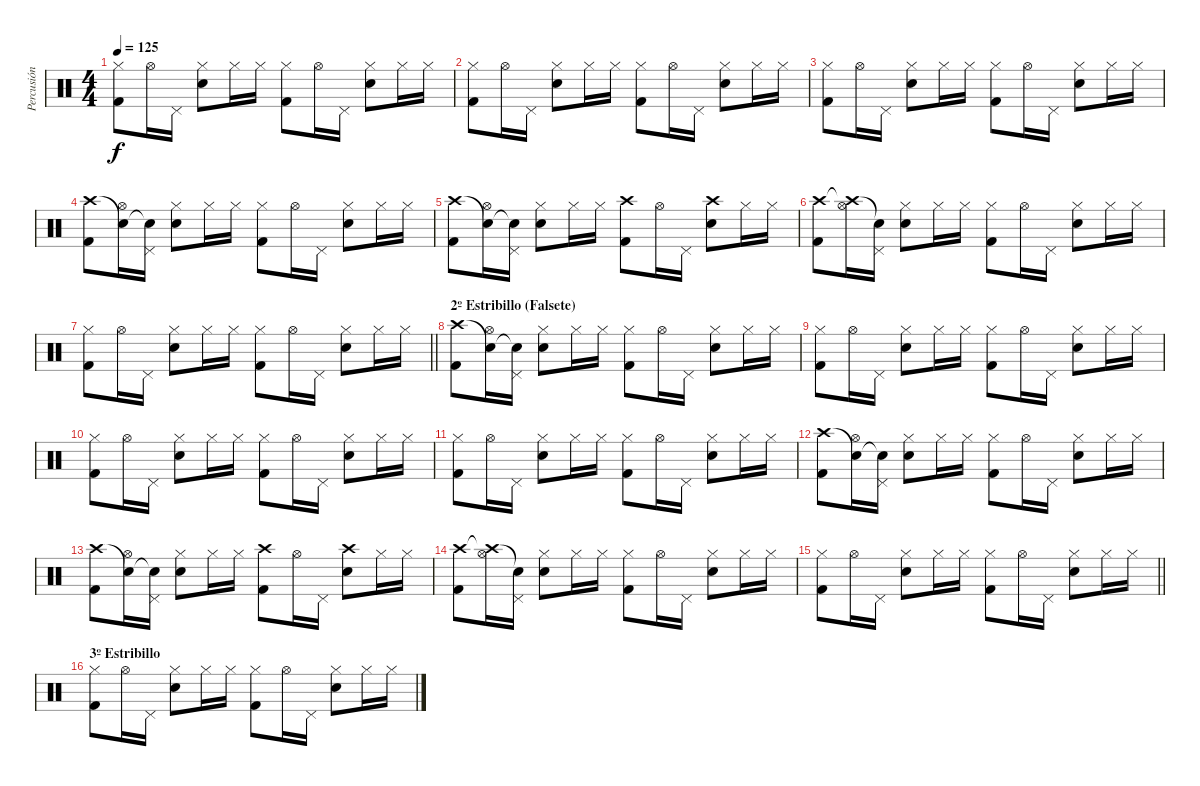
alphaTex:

\track ("Percusión" "Percusión") {instrument percussion}
\staff {score}
\articulation defaults
\ts (4 4)
\tempo 125
\clef neutral
\ks c
("Hi-Hat (closed)" "Kick (hit) 2").8{dy f} "Hi-Hat (open)".16 "Pedal Hi-Hat (hit)".16 ("Hi-Hat (closed)" "Snare (hit) 2").8 "Hi-Hat (closed)".16 "Hi-Hat (closed)".16 ("Hi-Hat (closed)" "Kick (hit) 2").8 "Hi-Hat (open)".16 "Pedal Hi-Hat (hit)".16 ("Hi-Hat (closed)" "Snare (hit) 2").8 "Hi-Hat (closed)".16 "Hi-Hat (closed)".16 |
("Hi-Hat (closed)" "Kick (hit) 2").8 "Hi-Hat (open)".16 "Pedal Hi-Hat (hit)".16 ("Hi-Hat (closed)" "Snare (hit) 2").8 "Hi-Hat (closed)".16 "Hi-Hat (closed)".16 ("Hi-Hat (closed)" "Kick (hit) 2").8 "Hi-Hat (open)".16 "Pedal Hi-Hat (hit)".16 ("Hi-Hat (closed)" "Snare (hit) 2").8 "Hi-Hat (closed)".16 "Hi-Hat (closed)".16 |
("Hi-Hat (closed)" "Kick (hit) 2").8 "Hi-Hat (open)".16 "Pedal Hi-Hat (hit)".16 ("Hi-Hat (closed)" "Snare (hit) 2").8 "Hi-Hat (closed)".16 "Hi-Hat (closed)".16 ("Hi-Hat (closed)" "Kick (hit) 2").8 "Hi-Hat (open)".16 "Pedal Hi-Hat (hit)".16 ("Hi-Hat (closed)" "Snare (hit) 2").8 "Hi-Hat (closed)".16 "Hi-Hat (closed)".16 |
("Crash high (hit)" "Kick (hit) 2").8 ("Snare (hit)"{t} "Hi-Hat (open)").16 ("Snare (hit)"{t} "Pedal Hi-Hat (hit)").16 ("Hi-Hat (closed)" "Snare (hit) 2").8 "Hi-Hat (closed)".16 "Hi-Hat (closed)".16 ("Hi-Hat (closed)" "Kick (hit) 2").8 "Hi-Hat (open)".16 "Pedal Hi-Hat (hit)".16 ("Hi-Hat (closed)" "Snare (hit) 2").8 "Hi-Hat (closed)".16 "Hi-Hat (closed)".16 |
("Crash high (hit)" "Kick (hit) 2").8 ("Snare (hit)"{t} "Hi-Hat (open)").16 ("Snare (hit)"{t} "Pedal Hi-Hat (hit)").16 ("Hi-Hat (closed)" "Snare (hit) 2").8 "Hi-Hat (closed)".16 "Hi-Hat (closed)".16 ("Crash high (hit)" "Kick (hit) 2").8 "Hi-Hat (open)".16 "Pedal Hi-Hat (hit)".16 ("Crash high (hit)" "Snare (hit) 2").8 "Hi-Hat (closed)".16 "Hi-Hat (closed)".16 |
("Crash high (hit)" "Kick (hit) 2").8 ("Crash high (hit)"{t} "Hi-Hat (open)").16 ("Snare (hit)"{t} "Pedal Hi-Hat (hit)").16 ("Hi-Hat (closed)" "Snare (hit) 2").8 "Hi-Hat (closed)".16 "Hi-Hat (closed)".16 ("Hi-Hat (closed)" "Kick (hit) 2").8 "Hi-Hat (open)".16 "Pedal Hi-Hat (hit)".16 ("Hi-Hat (closed)" "Snare (hit) 2").8 "Hi-Hat (closed)".16 "Hi-Hat (closed)".16 |
\barLineRight lightlight
("Hi-Hat (closed)" "Kick (hit) 2").8 "Hi-Hat (open)".16 "Pedal Hi-Hat (hit)".16 ("Hi-Hat (closed)" "Snare (hit) 2").8 "Hi-Hat (closed)".16 "Hi-Hat (closed)".16 ("Hi-Hat (closed)" "Kick (hit) 2").8 "Hi-Hat (open)".16 "Pedal Hi-Hat (hit)".16 ("Hi-Hat (closed)" "Snare (hit) 2").8 "Hi-Hat (closed)".16 "Hi-Hat (closed)".16 |
\section ("" "2º Estribillo (Falsete)")
("Crash high (hit)" "Kick (hit) 2").8 ("Snare (hit)"{t} "Hi-Hat (open)").16 ("Snare (hit)"{t} "Pedal Hi-Hat (hit)").16 ("Hi-Hat (closed)" "Snare (hit) 2").8 "Hi-Hat (closed)".16 "Hi-Hat (closed)".16 ("Hi-Hat (closed)" "Kick (hit) 2").8 "Hi-Hat (open)".16 "Pedal Hi-Hat (hit)".16 ("Hi-Hat (closed)" "Snare (hit) 2").8 "Hi-Hat (closed)".16 "Hi-Hat (closed)".16 |
("Hi-Hat (closed)" "Kick (hit) 2").8 "Hi-Hat (open)".16 "Pedal Hi-Hat (hit)".16 ("Hi-Hat (closed)" "Snare (hit) 2").8 "Hi-Hat (closed)".16 "Hi-Hat (closed)".16 ("Hi-Hat (closed)" "Kick (hit) 2").8 "Hi-Hat (open)".16 "Pedal Hi-Hat (hit)".16 ("Hi-Hat (closed)" "Snare (hit) 2").8 "Hi-Hat (closed)".16 "Hi-Hat (closed)".16 |
("Hi-Hat (closed)" "Kick (hit) 2").8 "Hi-Hat (open)".16 "Pedal Hi-Hat (hit)".16 ("Hi-Hat (closed)" "Snare (hit) 2").8 "Hi-Hat (closed)".16 "Hi-Hat (closed)".16 ("Hi-Hat (closed)" "Kick (hit) 2").8 "Hi-Hat (open)".16 "Pedal Hi-Hat (hit)".16 ("Hi-Hat (closed)" "Snare (hit) 2").8 "Hi-Hat (closed)".16 "Hi-Hat (closed)".16 |
("Hi-Hat (closed)" "Kick (hit) 2").8 "Hi-Hat (open)".16 "Pedal Hi-Hat (hit)".16 ("Hi-Hat (closed)" "Snare (hit) 2").8 "Hi-Hat (closed)".16 "Hi-Hat (closed)".16 ("Hi-Hat (closed)" "Kick (hit) 2").8 "Hi-Hat (open)".16 "Pedal Hi-Hat (hit)".16 ("Hi-Hat (closed)" "Snare (hit) 2").8 "Hi-Hat (closed)".16 "Hi-Hat (closed)".16 |
("Crash high (hit)" "Kick (hit) 2").8 ("Snare (hit)"{t} "Hi-Hat (open)").16 ("Snare (hit)"{t} "Pedal Hi-Hat (hit)").16 ("Hi-Hat (closed)" "Snare (hit) 2").8 "Hi-Hat (closed)".16 "Hi-Hat (closed)".16 ("Hi-Hat (closed)" "Kick (hit) 2").8 "Hi-Hat (open)".16 "Pedal Hi-Hat (hit)".16 ("Hi-Hat (closed)" "Snare (hit) 2").8 "Hi-Hat (closed)".16 "Hi-Hat (closed)".16 |
("Crash high (hit)" "Kick (hit) 2").8 ("Snare (hit)"{t} "Hi-Hat (open)").16 ("Snare (hit)"{t} "Pedal Hi-Hat (hit)").16 ("Hi-Hat (closed)" "Snare (hit) 2").8 "Hi-Hat (closed)".16 "Hi-Hat (closed)".16 ("Crash high (hit)" "Kick (hit) 2").8 "Hi-Hat (open)".16 "Pedal Hi-Hat (hit)".16 ("Crash high (hit)" "Snare (hit) 2").8 "Hi-Hat (closed)".16 "Hi-Hat (closed)".16 |
("Crash high (hit)" "Kick (hit) 2").8 ("Crash high (hit)"{t} "Hi-Hat (open)").16 ("Snare (hit)"{t} "Pedal Hi-Hat (hit)").16 ("Hi-Hat (closed)" "Snare (hit) 2").8 "Hi-Hat (closed)".16 "Hi-Hat (closed)".16 ("Hi-Hat (closed)" "Kick (hit) 2").8 "Hi-Hat (open)".16 "Pedal Hi-Hat (hit)".16 ("Hi-Hat (closed)" "Snare (hit) 2").8 "Hi-Hat (closed)".16 "Hi-Hat (closed)".16 |
\barLineRight lightlight
("Hi-Hat (closed)" "Kick (hit) 2").8 "Hi-Hat (open)".16 "Pedal Hi-Hat (hit)".16 ("Hi-Hat (closed)" "Snare (hit) 2").8 "Hi-Hat (closed)".16 "Hi-Hat (closed)".16 ("Hi-Hat (closed)" "Kick (hit) 2").8 "Hi-Hat (open)".16 "Pedal Hi-Hat (hit)".16 ("Hi-Hat (closed)" "Snare (hit) 2").8 "Hi-Hat (closed)".16 "Hi-Hat (closed)".16 |
\section ("" "3º Estribillo")
("Hi-Hat (closed)" "Kick (hit) 2").8 "Hi-Hat (open)".16 "Pedal Hi-Hat (hit)".16 ("Hi-Hat (closed)" "Snare (hit) 2").8 "Hi-Hat (closed)".16 "Hi-Hat (closed)".16 ("Hi-Hat (closed)" "Kick (hit) 2").8 "Hi-Hat (open)".16 "Pedal Hi-Hat (hit)".16 ("Hi-Hat (closed)" "Snare (hit) 2").8 "Hi-Hat (closed)".16 "Hi-Hat (closed)".16
